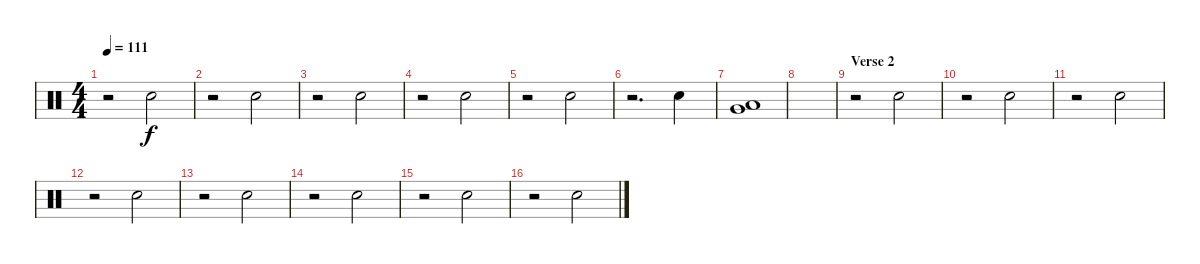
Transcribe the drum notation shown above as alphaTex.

\track "" {instrument percussion}
\staff {score}
\articulation defaults
\ts (4 4)
\tempo 111
\clef neutral
\ks c
r.2{dy f} "Electric Snare (hit)".2 |
r.2 "Electric Snare (hit)".2 |
r.2 "Electric Snare (hit)".2 |
r.2 "Electric Snare (hit)".2 |
r.2 "Electric Snare (hit)".2 |
r.2{d} "Electric Snare (hit)".4 |
("Very Low Tom (hit)" "Low Tom (hit)").1 |
|
\section ("" "Verse 2")
r.2 "Electric Snare (hit)".2 |
r.2 "Electric Snare (hit)".2 |
r.2 "Electric Snare (hit)".2 |
r.2 "Electric Snare (hit)".2 |
r.2 "Electric Snare (hit)".2 |
r.2 "Electric Snare (hit)".2 |
r.2 "Electric Snare (hit)".2 |
r.2 "Electric Snare (hit)".2
